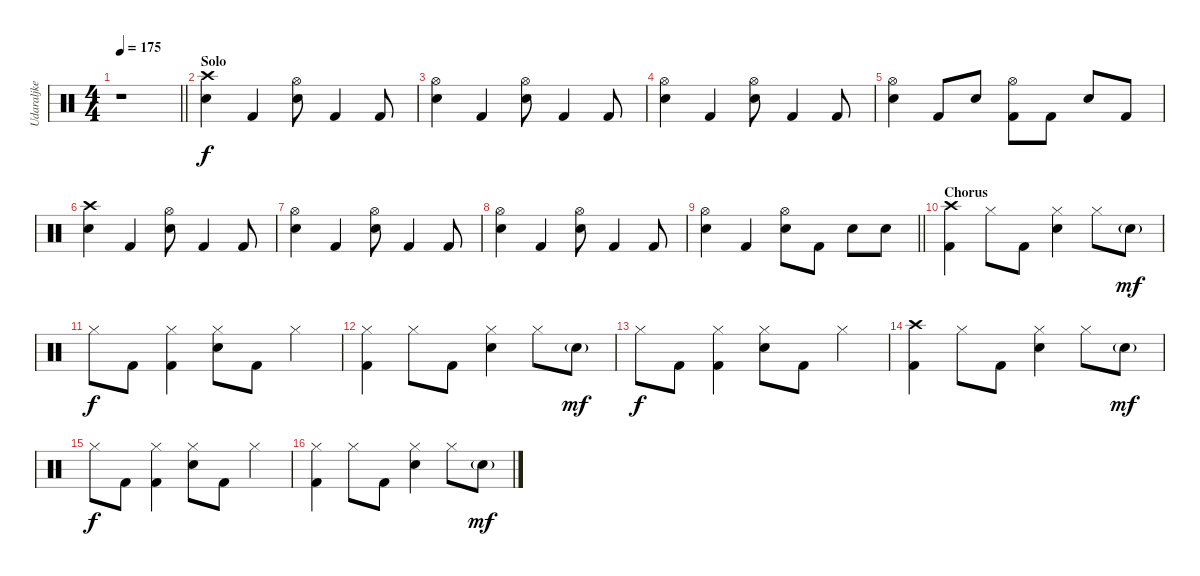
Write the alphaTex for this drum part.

\track ("Udaraljke" "Udaraljke") {instrument percussion}
\staff {score}
\articulation defaults
\ts (4 4)
\tempo 175
\clef neutral
\barLineRight lightlight
\ks c
r.1{dy mp} |
\section ("" "Solo")
("Crash high (hit)" "Electric Snare (hit)").4{dy f} "Kick (hit) 2".4 ("Hi-Hat (open)" "Electric Snare (hit)").8 "Kick (hit) 2".4 "Kick (hit) 2".8 |
("Hi-Hat (open)" "Electric Snare (hit)").4 "Kick (hit) 2".4 ("Hi-Hat (open)" "Electric Snare (hit)").8 "Kick (hit) 2".4 "Kick (hit) 2".8 |
("Hi-Hat (open)" "Electric Snare (hit)").4 "Kick (hit) 2".4 ("Hi-Hat (open)" "Electric Snare (hit)").8 "Kick (hit) 2".4 "Kick (hit) 2".8 |
("Hi-Hat (open)" "Electric Snare (hit)").4 "Kick (hit) 2".8 "Electric Snare (hit)".8 ("Hi-Hat (open)" "Kick (hit) 2").8 "Kick (hit) 2".8 "Electric Snare (hit)".8 "Kick (hit) 2".8 |
("Crash high (hit)" "Electric Snare (hit)").4 "Kick (hit) 2".4 ("Hi-Hat (open)" "Electric Snare (hit)").8 "Kick (hit) 2".4 "Kick (hit) 2".8 |
("Hi-Hat (open)" "Electric Snare (hit)").4 "Kick (hit) 2".4 ("Hi-Hat (open)" "Electric Snare (hit)").8 "Kick (hit) 2".4 "Kick (hit) 2".8 |
("Hi-Hat (open)" "Electric Snare (hit)").4 "Kick (hit) 2".4 ("Hi-Hat (open)" "Electric Snare (hit)").8 "Kick (hit) 2".4 "Kick (hit) 2".8 |
\barLineRight lightlight
("Hi-Hat (open)" "Electric Snare (hit)").4 "Kick (hit) 2".4 ("Hi-Hat (open)" "Electric Snare (hit)").8 "Kick (hit) 2".8 "Electric Snare (hit)".8 "Electric Snare (hit)".8 |
\section ("" "Chorus")
("Crash high (hit)" "Kick (hit) 2").4 "Hi-Hat (closed)".8 "Kick (hit) 2".8 ("Hi-Hat (closed)" "Electric Snare (hit)").4 "Hi-Hat (closed)".8 "Electric Snare (hit)"{g}.8{dy mf} |
"Hi-Hat (closed)".8{dy f} "Kick (hit) 2".8 ("Hi-Hat (closed)" "Kick (hit) 2").4 ("Hi-Hat (closed)" "Electric Snare (hit)").8 "Kick (hit) 2".8 "Hi-Hat (closed)".4 |
("Hi-Hat (closed)" "Kick (hit) 2").4 "Hi-Hat (closed)".8 "Kick (hit) 2".8 ("Hi-Hat (closed)" "Electric Snare (hit)").4 "Hi-Hat (closed)".8 "Electric Snare (hit)"{g}.8{dy mf} |
"Hi-Hat (closed)".8{dy f} "Kick (hit) 2".8 ("Hi-Hat (closed)" "Kick (hit) 2").4 ("Hi-Hat (closed)" "Electric Snare (hit)").8 "Kick (hit) 2".8 "Hi-Hat (closed)".4 |
("Crash high (hit)" "Kick (hit) 2").4 "Hi-Hat (closed)".8 "Kick (hit) 2".8 ("Hi-Hat (closed)" "Electric Snare (hit)").4 "Hi-Hat (closed)".8 "Electric Snare (hit)"{g}.8{dy mf} |
"Hi-Hat (closed)".8{dy f} "Kick (hit) 2".8 ("Hi-Hat (closed)" "Kick (hit) 2").4 ("Hi-Hat (closed)" "Electric Snare (hit)").8 "Kick (hit) 2".8 "Hi-Hat (closed)".4 |
("Hi-Hat (closed)" "Kick (hit) 2").4 "Hi-Hat (closed)".8 "Kick (hit) 2".8 ("Hi-Hat (closed)" "Electric Snare (hit)").4 "Hi-Hat (closed)".8 "Electric Snare (hit)"{g}.8{dy mf}
